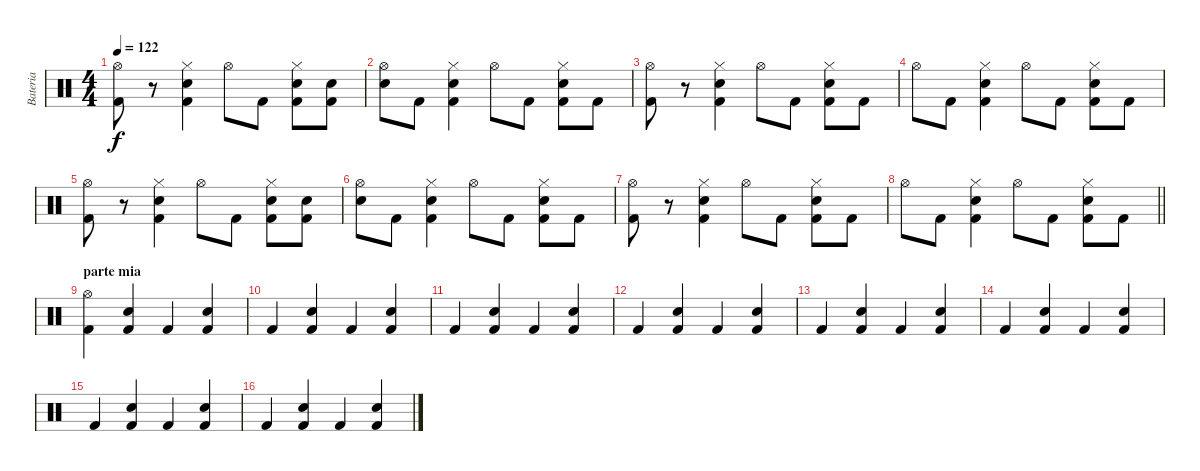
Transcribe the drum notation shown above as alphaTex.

\track ("Bateria" "Bateria") {instrument percussion}
\staff {score}
\articulation defaults
\ts (4 4)
\tempo 122
\clef neutral
\ks c
("Kick (hit) 2" "Hi-Hat (open)").8{dy f} r.8 ("Kick (hit) 2" "Snare (hit) 2" "Hi-Hat (closed)").4 "Hi-Hat (open)".8 "Kick (hit) 2".8 ("Kick (hit) 2" "Snare (hit) 2" "Hi-Hat (closed)").8 ("Kick (hit) 2" "Snare (hit)").8 |
("Hi-Hat (open)" "Snare (hit)").8 "Kick (hit) 2".8 ("Kick (hit) 2" "Snare (hit) 2" "Hi-Hat (closed)").4 "Hi-Hat (open)".8 "Kick (hit) 2".8 ("Kick (hit) 2" "Snare (hit) 2" "Hi-Hat (closed)").8 "Kick (hit) 2".8 |
("Kick (hit) 2" "Hi-Hat (open)").8 r.8 ("Kick (hit) 2" "Snare (hit) 2" "Hi-Hat (closed)").4 "Hi-Hat (open)".8 "Kick (hit) 2".8 ("Kick (hit) 2" "Snare (hit) 2" "Hi-Hat (closed)").8 "Kick (hit) 2".8 |
"Hi-Hat (open)".8 "Kick (hit) 2".8 ("Kick (hit) 2" "Snare (hit) 2" "Hi-Hat (closed)").4 "Hi-Hat (open)".8 "Kick (hit) 2".8 ("Kick (hit) 2" "Snare (hit) 2" "Hi-Hat (closed)").8 "Kick (hit) 2".8 |
("Kick (hit) 2" "Hi-Hat (open)").8 r.8 ("Kick (hit) 2" "Snare (hit) 2" "Hi-Hat (closed)").4 "Hi-Hat (open)".8 "Kick (hit) 2".8 ("Kick (hit) 2" "Snare (hit) 2" "Hi-Hat (closed)").8 ("Kick (hit) 2" "Snare (hit)").8 |
("Hi-Hat (open)" "Snare (hit)").8 "Kick (hit) 2".8 ("Kick (hit) 2" "Snare (hit) 2" "Hi-Hat (closed)").4 "Hi-Hat (open)".8 "Kick (hit) 2".8 ("Kick (hit) 2" "Snare (hit) 2" "Hi-Hat (closed)").8 "Kick (hit) 2".8 |
("Kick (hit) 2" "Hi-Hat (open)").8 r.8 ("Kick (hit) 2" "Snare (hit) 2" "Hi-Hat (closed)").4 "Hi-Hat (open)".8 "Kick (hit) 2".8 ("Kick (hit) 2" "Snare (hit) 2" "Hi-Hat (closed)").8 "Kick (hit) 2".8 |
\barLineRight lightlight "Hi-Hat (open)".8 "Kick (hit) 2".8
("Kick (hit) 2" "Snare (hit) 2" "Hi-Hat (closed)").4 "Hi-Hat (open)".8 "Kick (hit) 2".8 ("Kick (hit) 2" "Snare (hit) 2" "Hi-Hat (closed)").8 "Kick (hit) 2".8 |
\section ("" "parte mia")
("Kick (hit) 2" "Hi-Hat (open)").4 ("Kick (hit) 2" "Snare (hit) 2").4 "Kick (hit) 2".4 ("Kick (hit) 2" "Snare (hit) 2").4 |
"Kick (hit) 2".4 ("Kick (hit) 2" "Snare (hit) 2").4 "Kick (hit) 2".4 ("Kick (hit) 2" "Snare (hit) 2").4 |
"Kick (hit) 2".4 ("Kick (hit) 2" "Snare (hit) 2").4 "Kick (hit) 2".4 ("Kick (hit) 2" "Snare (hit) 2").4 |
"Kick (hit) 2".4 ("Kick (hit) 2" "Snare (hit) 2").4 "Kick (hit) 2".4 ("Kick (hit) 2" "Snare (hit) 2").4 |
"Kick (hit) 2".4 ("Kick (hit) 2" "Snare (hit) 2").4 "Kick (hit) 2".4 ("Kick (hit) 2" "Snare (hit) 2").4 |
"Kick (hit) 2".4 ("Kick (hit) 2" "Snare (hit) 2").4 "Kick (hit) 2".4 ("Kick (hit) 2" "Snare (hit) 2").4 |
"Kick (hit) 2".4 ("Kick (hit) 2" "Snare (hit) 2").4 "Kick (hit) 2".4 ("Kick (hit) 2" "Snare (hit) 2").4 |
"Kick (hit) 2".4 ("Kick (hit) 2" "Snare (hit) 2").4 "Kick (hit) 2".4 ("Kick (hit) 2" "Snare (hit) 2").4
